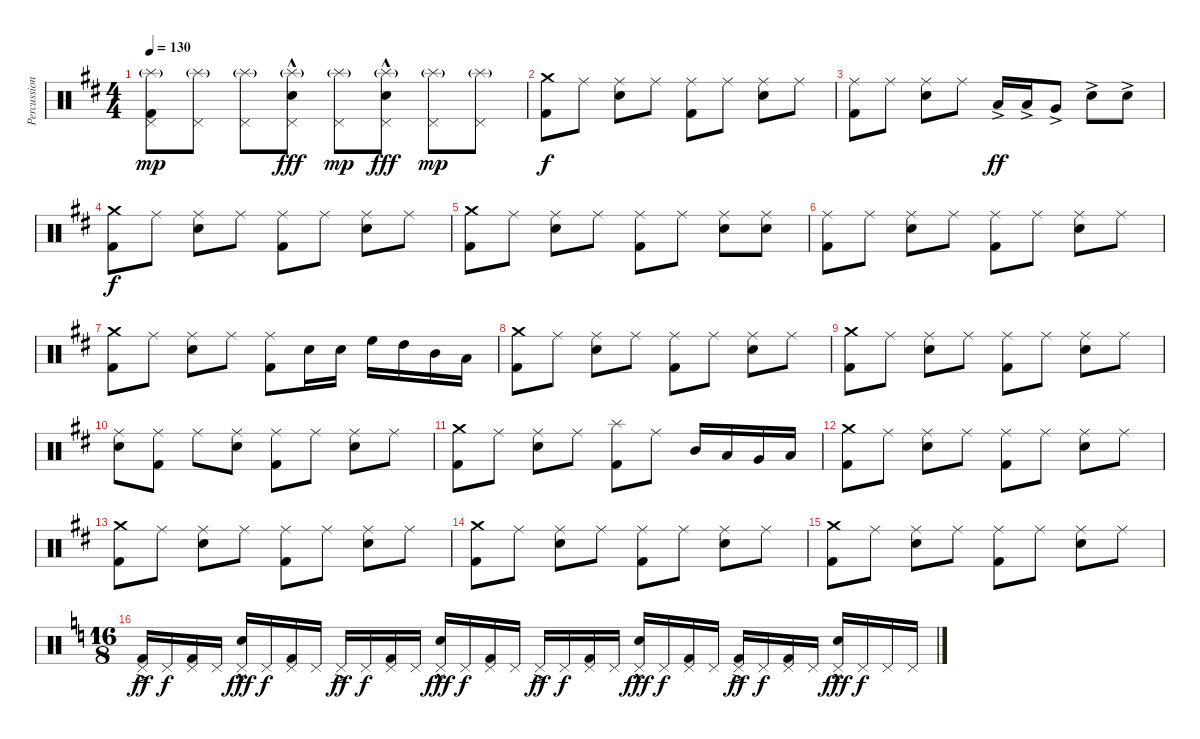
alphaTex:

\track ("Percussion" "Percussion") {instrument percussion bank 110}
\staff {score}
\articulation defaults
\ts (4 4)
\tempo 130
\clef neutral
\ks d
("Splash (hit)"{g} "Pedal Hi-Hat (hit)" "Kick (hit) 2").8{dy mp} ("Splash (hit)"{g} "Pedal Hi-Hat (hit)").8 ("Splash (hit)"{g} "Pedal Hi-Hat (hit)").8 ("Splash (hit)"{g} "Pedal Hi-Hat (hit)" "Electric Snare (hit)"{hac}).8{dy fff} ("Splash (hit)"{g} "Pedal Hi-Hat (hit)").8{dy mp} ("Splash (hit)"{g} "Pedal Hi-Hat (hit)" "Electric Snare (hit)"{hac}).8{dy fff} ("Splash (hit)"{g} "Pedal Hi-Hat (hit)").8{dy mp} ("Splash (hit)"{g} "Pedal Hi-Hat (hit)").8 |
("Crash medium (hit)" "Kick (hit) 2").8{dy f} "Ride (middle)".8 ("Ride (middle)" "Electric Snare (hit)").8 "Ride (middle)".8 ("Ride (middle)" "Kick (hit) 2").8 "Ride (middle)".8 ("Ride (middle)" "Electric Snare (hit)").8 "Ride (middle)".8 |
("Ride (middle)" "Kick (hit) 2").8 "Ride (middle)".8 ("Ride (middle)" "Electric Snare (hit)").8 "Ride (middle)".8 "Low Tom (hit)"{ac}.16{dy ff} "Low Tom (hit)"{ac}.16 "Very Low Tom (hit)"{ac}.8 "Electric Snare (hit)"{ac}.8 "Electric Snare (hit)"{ac}.8 |
("Crash medium (hit)" "Kick (hit) 2").8{dy f} "Ride (middle)".8 ("Ride (middle)" "Electric Snare (hit)").8 "Ride (middle)".8 ("Ride (middle)" "Kick (hit) 2").8 "Ride (middle)".8 ("Ride (middle)" "Electric Snare (hit)").8 "Ride (middle)".8 |
("Crash medium (hit)" "Kick (hit) 2").8 "Ride (middle)".8 ("Ride (middle)" "Electric Snare (hit)").8 "Ride (middle)".8 ("Ride (middle)" "Kick (hit) 2").8 "Ride (middle)".8 ("Ride (middle)" "Electric Snare (hit)").8 ("Ride (middle)" "Electric Snare (hit)").8 |
("Ride (middle)" "Kick (hit) 2").8 "Ride (middle)".8 ("Ride (middle)" "Electric Snare (hit)").8 "Ride (middle)".8 ("Ride (middle)" "Kick (hit) 2").8 "Ride (middle)".8 ("Ride (middle)" "Electric Snare (hit)").8 "Ride (middle)".8 |
("Crash medium (hit)" "Kick (hit) 2").8 "Ride (middle)".8 ("Ride (middle)" "Electric Snare (hit)").8 "Ride (middle)".8 ("Ride (middle)" "Kick (hit) 2").8 "Electric Snare (hit)".16 "Electric Snare (hit)".16 "High Floor Tom (hit)".16 "High Tom (hit)".16 "Mid Tom (hit)".16 "Low Tom (hit)".16 |
("Crash medium (hit)" "Kick (hit) 2").8 "Ride (middle)".8 ("Ride (middle)" "Electric Snare (hit)").8 "Ride (middle)".8 ("Ride (middle)" "Kick (hit) 2").8 "Ride (middle)".8 ("Ride (middle)" "Electric Snare (hit)").8 "Ride (middle)".8 |
("Crash medium (hit)" "Kick (hit) 2").8 "Ride (middle)".8 ("Ride (middle)" "Electric Snare (hit)").8 "Ride (middle)".8 ("Ride (middle)" "Kick (hit) 2").8 "Ride (middle)".8 ("Ride (middle)" "Electric Snare (hit)").8 "Ride (middle)".8 |
("Ride (middle)" "Electric Snare (hit)").8 ("Ride (middle)" "Kick (hit) 2").8 "Ride (middle)".8 ("Ride (middle)" "Electric Snare (hit)").8 ("Ride (middle)" "Kick (hit) 2").8 "Ride (middle)".8 ("Ride (middle)" "Electric Snare (hit)").8 "Ride (middle)".8 |
("Crash medium (hit)" "Kick (hit) 2").8 "Ride (middle)".8 ("Ride (middle)" "Electric Snare (hit)").8 "Ride (middle)".8 ("Splash (hit)" "Kick (hit) 2").8 "Ride (middle)".8 "Mid Tom (hit)".16 "Low Tom (hit)".16 "Very Low Tom (hit)".16 "Low Floor Tom (hit)".16 |
("Crash medium (hit)" "Kick (hit) 2").8 "Ride (middle)".8 ("Ride (middle)" "Electric Snare (hit)").8 "Ride (middle)".8 ("Ride (middle)" "Kick (hit) 2").8 "Ride (middle)".8 ("Ride (middle)" "Electric Snare (hit)").8 "Ride (middle)".8 |
("Crash medium (hit)" "Kick (hit) 2").8 "Ride (middle)".8 ("Ride (middle)" "Electric Snare (hit)").8 "Ride (middle)".8 ("Ride (middle)" "Kick (hit) 2").8 "Ride (middle)".8 ("Ride (middle)" "Electric Snare (hit)").8 "Ride (middle)".8 |
("Crash medium (hit)" "Kick (hit) 2").8 "Ride (middle)".8 ("Ride (middle)" "Electric Snare (hit)").8 "Ride (middle)".8 ("Ride (middle)" "Kick (hit) 2").8 "Ride (middle)".8 ("Ride (middle)" "Electric Snare (hit)").8 "Ride (middle)".8 |
("Crash medium (hit)" "Kick (hit) 2").8 "Ride (middle)".8 ("Ride (middle)" "Electric Snare (hit)").8 "Ride (middle)".8 ("Ride (middle)" "Kick (hit) 2").8 "Ride (middle)".8 ("Ride (middle)" "Electric Snare (hit)").8 "Ride (middle)".8 |
\ts (16 8)
\ks c
("Pedal Hi-Hat (hit)"{ac} "Kick (hit) 2").16{dy ff} "Pedal Hi-Hat (hit)".16{dy f} ("Pedal Hi-Hat (hit)" "Kick (hit) 2").16 "Pedal Hi-Hat (hit)".16 ("Pedal Hi-Hat (hit)"{hac} "Electric Snare (hit)"{hac}).16{dy fff} "Pedal Hi-Hat (hit)".16{dy f} ("Pedal Hi-Hat (hit)" "Kick (hit) 2").16 "Pedal Hi-Hat (hit)".16 "Pedal Hi-Hat (hit)"{ac}.16{dy ff} "Pedal Hi-Hat (hit)".16{dy f} ("Pedal Hi-Hat (hit)" "Kick (hit) 2").16 "Pedal Hi-Hat (hit)".16 ("Pedal Hi-Hat (hit)"{hac} "Electric Snare (hit)"{hac}).16{dy fff} "Pedal Hi-Hat (hit)".16{dy f} ("Pedal Hi-Hat (hit)" "Kick (hit) 2").16 "Pedal Hi-Hat (hit)".16 "Pedal Hi-Hat (hit)"{ac}.16{dy ff} "Pedal Hi-Hat (hit)".16{dy f} ("Pedal Hi-Hat (hit)" "Kick (hit) 2").16 "Pedal Hi-Hat (hit)".16 ("Pedal Hi-Hat (hit)"{hac} "Electric Snare (hit)"{hac}).16{dy fff} "Pedal Hi-Hat (hit)".16{dy f} ("Pedal Hi-Hat (hit)" "Kick (hit) 2").16 "Pedal Hi-Hat (hit)".16 ("Pedal Hi-Hat (hit)"{ac} "Kick (hit) 2").16{dy ff} "Pedal Hi-Hat (hit)".16{dy f} ("Pedal Hi-Hat (hit)" "Kick (hit) 2").16 "Pedal Hi-Hat (hit)".16 ("Pedal Hi-Hat (hit)"{hac} "Electric Snare (hit)"{hac}).16{dy fff} "Pedal Hi-Hat (hit)".16{dy f} "Pedal Hi-Hat (hit)".16 "Pedal Hi-Hat (hit)".16
